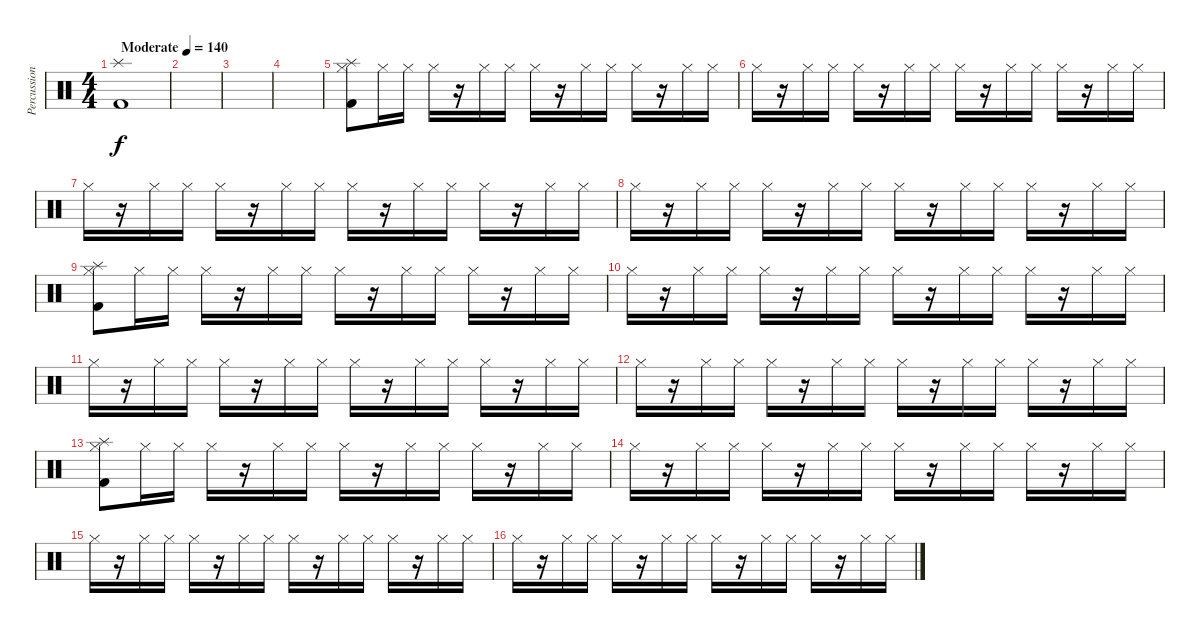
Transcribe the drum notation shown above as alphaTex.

\track ("Percussion" "Percussion") {instrument percussion}
\staff {score}
\articulation defaults
\ts (4 4)
\tempo (140 "Moderate")
\clef neutral
\ks c
("Splash (hit)" "Kick (hit) 2").1{dy f} |
|
|
|
("Hi-Hat (closed)" "Kick (hit) 2" "Splash (hit)").8 "Hi-Hat (closed)".16 "Hi-Hat (closed)".16 "Hi-Hat (closed)".16 r.16 "Hi-Hat (closed)".16 "Hi-Hat (closed)".16 "Hi-Hat (closed)".16 r.16 "Hi-Hat (closed)".16 "Hi-Hat (closed)".16 "Hi-Hat (closed)".16 r.16 "Hi-Hat (closed)".16 "Hi-Hat (closed)".16 |
"Hi-Hat (closed)".16 r.16 "Hi-Hat (closed)".16 "Hi-Hat (closed)".16 "Hi-Hat (closed)".16 r.16 "Hi-Hat (closed)".16 "Hi-Hat (closed)".16 "Hi-Hat (closed)".16 r.16 "Hi-Hat (closed)".16 "Hi-Hat (closed)".16 "Hi-Hat (closed)".16 r.16 "Hi-Hat (closed)".16 "Hi-Hat (closed)".16 |
"Hi-Hat (closed)".16 r.16 "Hi-Hat (closed)".16 "Hi-Hat (closed)".16 "Hi-Hat (closed)".16 r.16 "Hi-Hat (closed)".16 "Hi-Hat (closed)".16 "Hi-Hat (closed)".16 r.16 "Hi-Hat (closed)".16 "Hi-Hat (closed)".16 "Hi-Hat (closed)".16 r.16 "Hi-Hat (closed)".16 "Hi-Hat (closed)".16 |
"Hi-Hat (closed)".16 r.16 "Hi-Hat (closed)".16 "Hi-Hat (closed)".16 "Hi-Hat (closed)".16 r.16 "Hi-Hat (closed)".16 "Hi-Hat (closed)".16 "Hi-Hat (closed)".16 r.16 "Hi-Hat (closed)".16 "Hi-Hat (closed)".16 "Hi-Hat (closed)".16 r.16 "Hi-Hat (closed)".16 "Hi-Hat (closed)".16 |
("Hi-Hat (closed)" "Kick (hit) 2" "Splash (hit)").8 "Hi-Hat (closed)".16 "Hi-Hat (closed)".16 "Hi-Hat (closed)".16 r.16 "Hi-Hat (closed)".16 "Hi-Hat (closed)".16 "Hi-Hat (closed)".16 r.16 "Hi-Hat (closed)".16 "Hi-Hat (closed)".16 "Hi-Hat (closed)".16 r.16 "Hi-Hat (closed)".16 "Hi-Hat (closed)".16 |
"Hi-Hat (closed)".16 r.16 "Hi-Hat (closed)".16 "Hi-Hat (closed)".16 "Hi-Hat (closed)".16 r.16 "Hi-Hat (closed)".16 "Hi-Hat (closed)".16 "Hi-Hat (closed)".16 r.16 "Hi-Hat (closed)".16 "Hi-Hat (closed)".16 "Hi-Hat (closed)".16 r.16 "Hi-Hat (closed)".16 "Hi-Hat (closed)".16 |
"Hi-Hat (closed)".16 r.16 "Hi-Hat (closed)".16 "Hi-Hat (closed)".16 "Hi-Hat (closed)".16 r.16 "Hi-Hat (closed)".16 "Hi-Hat (closed)".16 "Hi-Hat (closed)".16 r.16 "Hi-Hat (closed)".16 "Hi-Hat (closed)".16 "Hi-Hat (closed)".16 r.16 "Hi-Hat (closed)".16 "Hi-Hat (closed)".16 |
"Hi-Hat (closed)".16 r.16 "Hi-Hat (closed)".16 "Hi-Hat (closed)".16 "Hi-Hat (closed)".16 r.16 "Hi-Hat (closed)".16 "Hi-Hat (closed)".16 "Hi-Hat (closed)".16 r.16 "Hi-Hat (closed)".16 "Hi-Hat (closed)".16 "Hi-Hat (closed)".16 r.16 "Hi-Hat (closed)".16 "Hi-Hat (closed)".16 |
("Hi-Hat (closed)" "Kick (hit) 2" "Splash (hit)").8 "Hi-Hat (closed)".16 "Hi-Hat (closed)".16 "Hi-Hat (closed)".16 r.16 "Hi-Hat (closed)".16 "Hi-Hat (closed)".16 "Hi-Hat (closed)".16 r.16 "Hi-Hat (closed)".16 "Hi-Hat (closed)".16 "Hi-Hat (closed)".16 r.16 "Hi-Hat (closed)".16 "Hi-Hat (closed)".16 |
"Hi-Hat (closed)".16 r.16 "Hi-Hat (closed)".16 "Hi-Hat (closed)".16 "Hi-Hat (closed)".16 r.16 "Hi-Hat (closed)".16 "Hi-Hat (closed)".16 "Hi-Hat (closed)".16 r.16 "Hi-Hat (closed)".16 "Hi-Hat (closed)".16 "Hi-Hat (closed)".16 r.16 "Hi-Hat (closed)".16 "Hi-Hat (closed)".16 |
"Hi-Hat (closed)".16 r.16 "Hi-Hat (closed)".16 "Hi-Hat (closed)".16 "Hi-Hat (closed)".16 r.16 "Hi-Hat (closed)".16 "Hi-Hat (closed)".16 "Hi-Hat (closed)".16 r.16 "Hi-Hat (closed)".16 "Hi-Hat (closed)".16 "Hi-Hat (closed)".16 r.16 "Hi-Hat (closed)".16 "Hi-Hat (closed)".16 |
"Hi-Hat (closed)".16 r.16 "Hi-Hat (closed)".16 "Hi-Hat (closed)".16 "Hi-Hat (closed)".16 r.16 "Hi-Hat (closed)".16 "Hi-Hat (closed)".16 "Hi-Hat (closed)".16 r.16 "Hi-Hat (closed)".16 "Hi-Hat (closed)".16 "Hi-Hat (closed)".16 r.16 "Hi-Hat (closed)".16 "Hi-Hat (closed)".16
